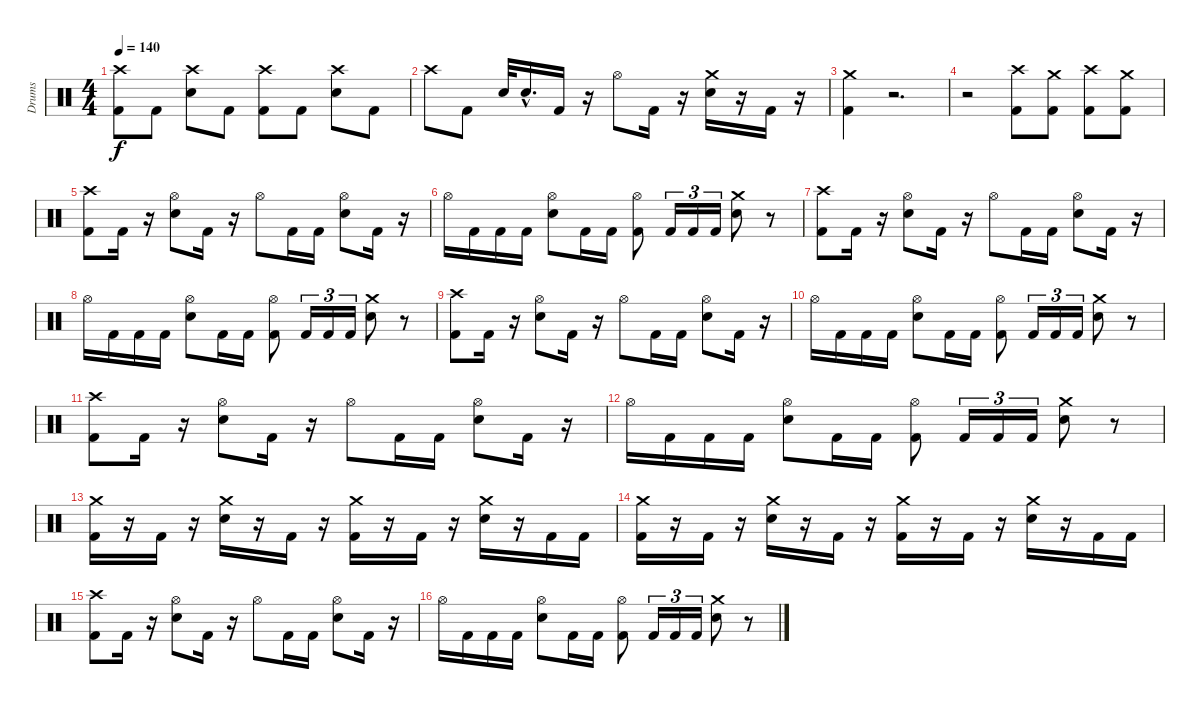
\track ("Drums" "Drums") {instrument percussion}
\staff {score}
\articulation defaults
\ts (4 4)
\tempo 140
\clef neutral
\ks c
("Kick (hit) 2" "Crash high (hit)").8{dy f} "Kick (hit) 2".8 ("Electric Snare (hit)" "Crash high (hit)").8 "Kick (hit) 2".8 ("Kick (hit) 2" "Crash high (hit)").8 "Kick (hit) 2".8 ("Electric Snare (hit)" "Crash high (hit)").8 "Kick (hit) 2".8 |
"Crash high (hit)".8 "Kick (hit) 2".8 "Electric Snare (hit)".32 "Electric Snare (hit)"{hac}.16{d} "Kick (hit) 2".16 r.16 "Hi-Hat (open)".8 "Kick (hit) 2".16 r.16 ("Crash medium (hit)" "Electric Snare (hit)").16 r.16 "Kick (hit) 2".16 r.16 |
("Crash medium (hit)" "Kick (hit) 2").4 r.2{d} |
r.2 ("Kick (hit) 2" "Crash high (hit)").8 ("Kick (hit) 2" "Crash medium (hit)").8 ("Kick (hit) 2" "Crash high (hit)").8 ("Kick (hit) 2" "Crash medium (hit)").8 |
("Kick (hit) 2" "Crash high (hit)").8 "Kick (hit) 2".16 r.16 ("Electric Snare (hit)" "Hi-Hat (open)").8 "Kick (hit) 2".16 r.16 "Hi-Hat (open)".8 "Kick (hit) 2".16 "Kick (hit) 2".16 ("Electric Snare (hit)" "Hi-Hat (open)").8 "Kick (hit) 2".16 r.16 |
"Hi-Hat (open)".16 "Kick (hit) 2".16 "Kick (hit) 2".16 "Kick (hit) 2".16 ("Electric Snare (hit)" "Hi-Hat (open)").8 "Kick (hit) 2".16 "Kick (hit) 2".16 ("Kick (hit) 2" "Hi-Hat (open)").8 "Kick (hit) 2".16{tu (3 2)} "Kick (hit) 2".16{tu (3 2)} "Kick (hit) 2".16{tu (3 2)} ("Electric Snare (hit)" "Crash medium (hit)").8 r.8 |
("Kick (hit) 2" "Crash high (hit)").8 "Kick (hit) 2".16 r.16 ("Electric Snare (hit)" "Hi-Hat (open)").8 "Kick (hit) 2".16 r.16 "Hi-Hat (open)".8 "Kick (hit) 2".16 "Kick (hit) 2".16 ("Electric Snare (hit)" "Hi-Hat (open)").8 "Kick (hit) 2".16 r.16 |
"Hi-Hat (open)".16 "Kick (hit) 2".16 "Kick (hit) 2".16 "Kick (hit) 2".16 ("Electric Snare (hit)" "Hi-Hat (open)").8 "Kick (hit) 2".16 "Kick (hit) 2".16 ("Kick (hit) 2" "Hi-Hat (open)").8 "Kick (hit) 2".16{tu (3 2)} "Kick (hit) 2".16{tu (3 2)} "Kick (hit) 2".16{tu (3 2)} ("Electric Snare (hit)" "Crash medium (hit)").8 r.8 |
("Kick (hit) 2" "Crash high (hit)").8 "Kick (hit) 2".16 r.16 ("Electric Snare (hit)" "Hi-Hat (open)").8 "Kick (hit) 2".16 r.16 "Hi-Hat (open)".8 "Kick (hit) 2".16 "Kick (hit) 2".16 ("Electric Snare (hit)" "Hi-Hat (open)").8 "Kick (hit) 2".16 r.16 |
"Hi-Hat (open)".16 "Kick (hit) 2".16 "Kick (hit) 2".16 "Kick (hit) 2".16 ("Electric Snare (hit)" "Hi-Hat (open)").8 "Kick (hit) 2".16 "Kick (hit) 2".16 ("Kick (hit) 2" "Hi-Hat (open)").8 "Kick (hit) 2".16{tu (3 2)} "Kick (hit) 2".16{tu (3 2)} "Kick (hit) 2".16{tu (3 2)} ("Electric Snare (hit)" "Crash medium (hit)").8 r.8 |
("Kick (hit) 2" "Crash high (hit)").8 "Kick (hit) 2".16 r.16 ("Electric Snare (hit)" "Hi-Hat (open)").8 "Kick (hit) 2".16 r.16 "Hi-Hat (open)".8 "Kick (hit) 2".16 "Kick (hit) 2".16 ("Electric Snare (hit)" "Hi-Hat (open)").8 "Kick (hit) 2".16 r.16 |
"Hi-Hat (open)".16 "Kick (hit) 2".16 "Kick (hit) 2".16 "Kick (hit) 2".16 ("Electric Snare (hit)" "Hi-Hat (open)").8 "Kick (hit) 2".16 "Kick (hit) 2".16 ("Kick (hit) 2" "Hi-Hat (open)").8 "Kick (hit) 2".16{tu (3 2)} "Kick (hit) 2".16{tu (3 2)} "Kick (hit) 2".16{tu (3 2)} ("Electric Snare (hit)" "Crash medium (hit)").8 r.8 |
("Crash medium (hit)" "Kick (hit) 2").16 r.16 "Kick (hit) 2".16 r.16 ("Crash medium (hit)" "Electric Snare (hit)").16 r.16 "Kick (hit) 2".16 r.16 ("Kick (hit) 2" "Crash medium (hit)").16 r.16 "Kick (hit) 2".16 r.16 ("Crash medium (hit)" "Electric Snare (hit)").16 r.16 "Kick (hit) 2".16 "Kick (hit) 2".16 |
("Crash medium (hit)" "Kick (hit) 2").16 r.16 "Kick (hit) 2".16 r.16 ("Crash medium (hit)" "Electric Snare (hit)").16 r.16 "Kick (hit) 2".16 r.16 ("Kick (hit) 2" "Crash medium (hit)").16 r.16 "Kick (hit) 2".16 r.16 ("Crash medium (hit)" "Electric Snare (hit)").16 r.16 "Kick (hit) 2".16 "Kick (hit) 2".16 |
("Kick (hit) 2" "Crash high (hit)").8 "Kick (hit) 2".16 r.16 ("Electric Snare (hit)" "Hi-Hat (open)").8 "Kick (hit) 2".16 r.16 "Hi-Hat (open)".8 "Kick (hit) 2".16 "Kick (hit) 2".16 ("Electric Snare (hit)" "Hi-Hat (open)").8 "Kick (hit) 2".16 r.16 |
"Hi-Hat (open)".16 "Kick (hit) 2".16 "Kick (hit) 2".16 "Kick (hit) 2".16 ("Electric Snare (hit)" "Hi-Hat (open)").8 "Kick (hit) 2".16 "Kick (hit) 2".16 ("Kick (hit) 2" "Hi-Hat (open)").8 "Kick (hit) 2".16{tu (3 2)} "Kick (hit) 2".16{tu (3 2)} "Kick (hit) 2".16{tu (3 2)} ("Electric Snare (hit)" "Crash medium (hit)").8 r.8
